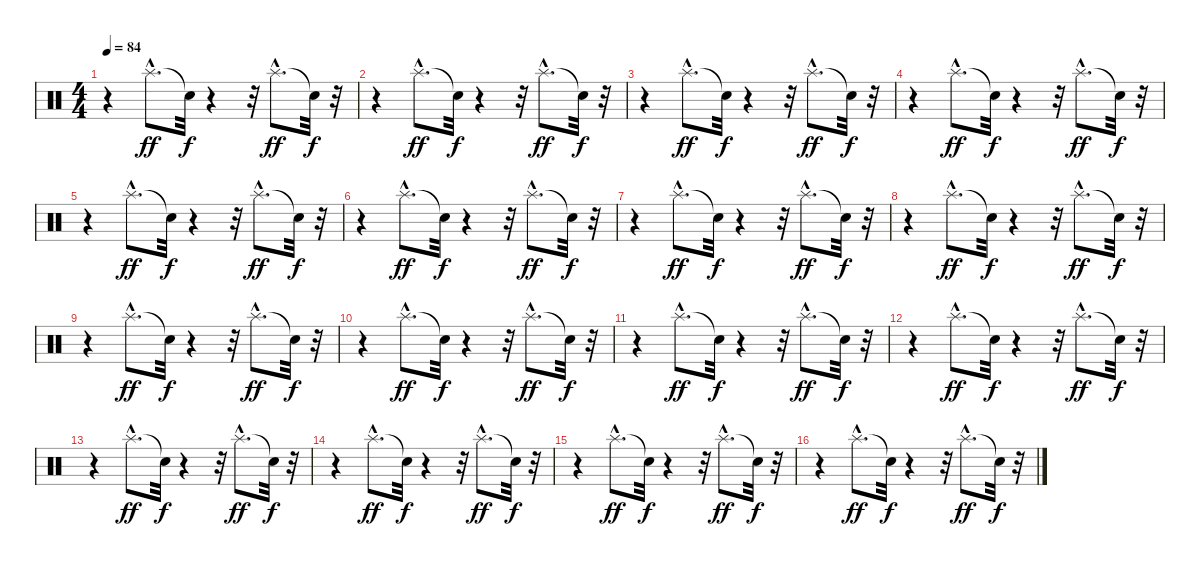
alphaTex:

\track "" {instrument percussion}
\staff {score}
\articulation defaults
\ts (4 4)
\tempo 84
\clef neutral
\ks c
r.4{dy f} "Splash (hit)"{hac}.8{d dy ff} "Snare (hit)"{t}.32{dy f} r.4 r.32 "Splash (hit)"{hac}.8{d dy ff} "Snare (hit)"{t}.32{dy f} r.32 |
r.4 "Splash (hit)"{hac}.8{d dy ff} "Snare (hit)"{t}.32{dy f} r.4 r.32 "Splash (hit)"{hac}.8{d dy ff} "Snare (hit)"{t}.32{dy f} r.32 |
r.4 "Splash (hit)"{hac}.8{d dy ff} "Snare (hit)"{t}.32{dy f} r.4 r.32 "Splash (hit)"{hac}.8{d dy ff} "Snare (hit)"{t}.32{dy f} r.32 |
r.4 "Splash (hit)"{hac}.8{d dy ff} "Snare (hit)"{t}.32{dy f} r.4 r.32 "Splash (hit)"{hac}.8{d dy ff} "Snare (hit)"{t}.32{dy f} r.32 |
r.4 "Splash (hit)"{hac}.8{d dy ff} "Snare (hit)"{t}.32{dy f} r.4 r.32 "Splash (hit)"{hac}.8{d dy ff} "Snare (hit)"{t}.32{dy f} r.32 |
r.4 "Splash (hit)"{hac}.8{d dy ff} "Snare (hit)"{t}.32{dy f} r.4 r.32 "Splash (hit)"{hac}.8{d dy ff} "Snare (hit)"{t}.32{dy f} r.32 |
r.4 "Splash (hit)"{hac}.8{d dy ff} "Snare (hit)"{t}.32{dy f} r.4 r.32 "Splash (hit)"{hac}.8{d dy ff} "Snare (hit)"{t}.32{dy f} r.32 |
r.4 "Splash (hit)"{hac}.8{d dy ff} "Snare (hit)"{t}.32{dy f} r.4 r.32 "Splash (hit)"{hac}.8{d dy ff} "Snare (hit)"{t}.32{dy f} r.32 |
r.4 "Splash (hit)"{hac}.8{d dy ff} "Snare (hit)"{t}.32{dy f} r.4 r.32 "Splash (hit)"{hac}.8{d dy ff} "Snare (hit)"{t}.32{dy f} r.32 |
r.4 "Splash (hit)"{hac}.8{d dy ff} "Snare (hit)"{t}.32{dy f} r.4 r.32 "Splash (hit)"{hac}.8{d dy ff} "Snare (hit)"{t}.32{dy f} r.32 |
r.4 "Splash (hit)"{hac}.8{d dy ff} "Snare (hit)"{t}.32{dy f} r.4 r.32 "Splash (hit)"{hac}.8{d dy ff} "Snare (hit)"{t}.32{dy f} r.32 |
r.4 "Splash (hit)"{hac}.8{d dy ff} "Snare (hit)"{t}.32{dy f} r.4 r.32 "Splash (hit)"{hac}.8{d dy ff} "Snare (hit)"{t}.32{dy f} r.32 |
r.4 "Splash (hit)"{hac}.8{d dy ff} "Snare (hit)"{t}.32{dy f} r.4 r.32 "Splash (hit)"{hac}.8{d dy ff} "Snare (hit)"{t}.32{dy f} r.32 |
r.4 "Splash (hit)"{hac}.8{d dy ff} "Snare (hit)"{t}.32{dy f} r.4 r.32 "Splash (hit)"{hac}.8{d dy ff} "Snare (hit)"{t}.32{dy f} r.32 |
r.4 "Splash (hit)"{hac}.8{d dy ff} "Snare (hit)"{t}.32{dy f} r.4 r.32 "Splash (hit)"{hac}.8{d dy ff} "Snare (hit)"{t}.32{dy f} r.32 |
r.4 "Splash (hit)"{hac}.8{d dy ff} "Snare (hit)"{t}.32{dy f} r.4 r.32 "Splash (hit)"{hac}.8{d dy ff} "Snare (hit)"{t}.32{dy f} r.32
